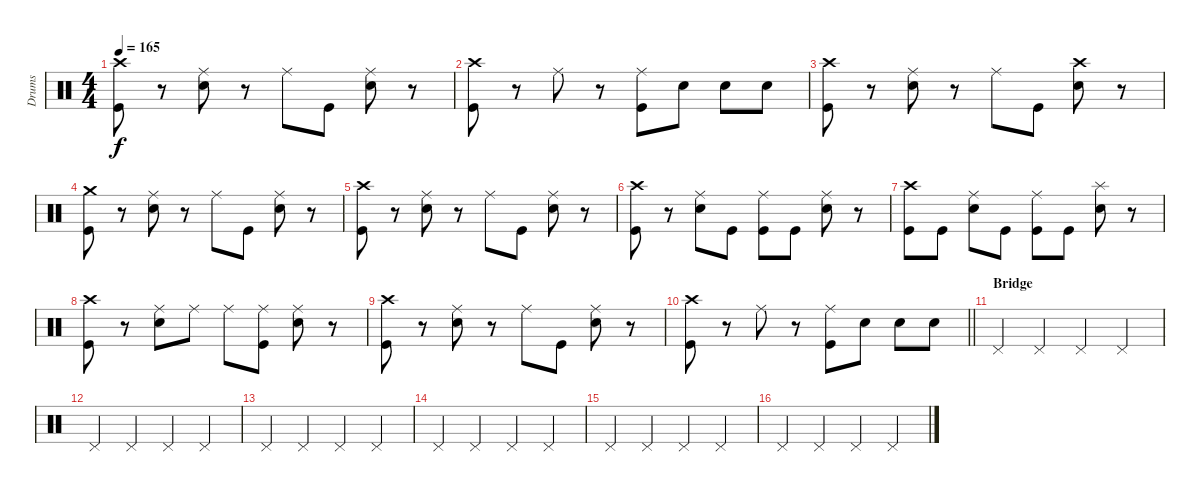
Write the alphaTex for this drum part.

\track ("Drums" "Drums") {instrument percussion}
\staff {score}
\articulation defaults
\ts (4 4)
\tempo 165
\clef neutral
\ks c
("Crash high (hit)" "Kick (hit)").8{dy f} r.8 ("Ride (middle)" "Snare (hit) 2").8 r.8 "Ride (middle)".8 "Kick (hit)".8 ("Ride (middle)" "Snare (hit) 2").8 r.8 |
("Crash high (hit)" "Kick (hit)").8 r.8 "Ride (middle)".8 r.8 ("Ride (middle)" "Kick (hit)").8 "Snare (hit) 2".8 "Snare (hit) 2".8 "Snare (hit) 2".8 |
("Crash high (hit)" "Kick (hit)").8 r.8 ("Ride (middle)" "Snare (hit) 2").8 r.8 "Ride (middle)".8 "Kick (hit)".8 ("Crash high (hit)" "Snare (hit) 2").8 r.8 |
("Crash medium (hit)" "Kick (hit)").8 r.8 ("Ride (middle)" "Snare (hit) 2").8 r.8 "Ride (middle)".8 "Kick (hit)".8 ("Ride (middle)" "Snare (hit) 2").8 r.8 |
("Crash high (hit)" "Kick (hit)").8 r.8 ("Ride (middle)" "Snare (hit) 2").8 r.8 "Ride (middle)".8 "Kick (hit)".8 ("Ride (middle)" "Snare (hit) 2").8 r.8 |
("Crash high (hit)" "Kick (hit)").8 r.8 ("Ride (middle)" "Snare (hit) 2").8 "Kick (hit)".8 ("Ride (middle)" "Kick (hit)").8 "Kick (hit)".8 ("Ride (middle)" "Snare (hit) 2").8 r.8 |
("Crash high (hit)" "Kick (hit)").8 "Kick (hit)".8 ("Ride (middle)" "Snare (hit) 2").8 "Kick (hit)".8 ("Ride (middle)" "Kick (hit)").8 "Kick (hit)".8 ("Splash (hit)" "Snare (hit) 2").8 r.8 |
("Crash high (hit)" "Kick (hit)").8 r.8 ("Ride (middle)" "Snare (hit) 2").8 "Ride (middle)".8 "Ride (middle)".8 ("Ride (middle)" "Kick (hit)").8 ("Ride (middle)" "Snare (hit) 2").8 r.8 |
("Crash high (hit)" "Kick (hit)").8 r.8 ("Ride (middle)" "Snare (hit) 2").8 r.8 "Ride (middle)".8 "Kick (hit)".8 ("Ride (middle)" "Snare (hit) 2").8 r.8 |
\barLineRight lightlight
("Crash high (hit)" "Kick (hit)").8 r.8 "Ride (middle)".8 r.8 ("Ride (middle)" "Kick (hit)").8 "Snare (hit) 2".8 "Snare (hit) 2".8 "Snare (hit) 2".8 |
\section ("" "Bridge")
"Pedal Hi-Hat (hit)".4 "Pedal Hi-Hat (hit)".4 "Pedal Hi-Hat (hit)".4 "Pedal Hi-Hat (hit)".4 |
"Pedal Hi-Hat (hit)".4 "Pedal Hi-Hat (hit)".4 "Pedal Hi-Hat (hit)".4 "Pedal Hi-Hat (hit)".4 |
"Pedal Hi-Hat (hit)".4 "Pedal Hi-Hat (hit)".4 "Pedal Hi-Hat (hit)".4 "Pedal Hi-Hat (hit)".4 |
"Pedal Hi-Hat (hit)".4 "Pedal Hi-Hat (hit)".4 "Pedal Hi-Hat (hit)".4 "Pedal Hi-Hat (hit)".4 |
"Pedal Hi-Hat (hit)".4 "Pedal Hi-Hat (hit)".4 "Pedal Hi-Hat (hit)".4 "Pedal Hi-Hat (hit)".4 |
"Pedal Hi-Hat (hit)".4 "Pedal Hi-Hat (hit)".4 "Pedal Hi-Hat (hit)".4 "Pedal Hi-Hat (hit)".4
